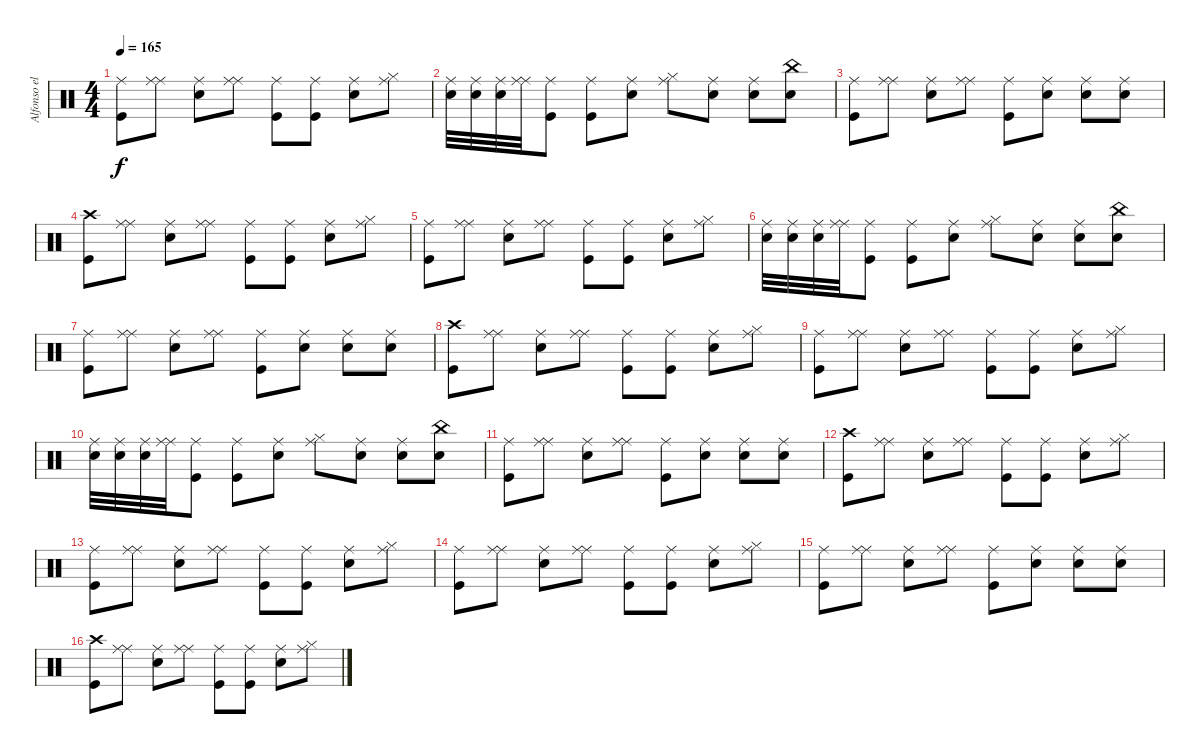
\track ("Alfonso el flaco Andre" "Alfonso el") {instrument percussion}
\staff {score}
\articulation defaults
\ts (4 4)
\tempo 165
\clef neutral
\ks c
("Ride (middle)" "Kick (hit)").8{dy f} ("Ride (middle)" "Ride (middle)").8 ("Ride (middle)" "Snare (hit) 2").8 ("Ride (middle)" "Ride (middle)").8 ("Ride (middle)" "Kick (hit)").8 ("Ride (middle)" "Kick (hit)").8 ("Ride (middle)" "Snare (hit) 2").8 ("Ride (middle)" "Hi-Hat (closed)").8 |
("Ride (middle)" "Snare (hit) 2").32 ("Ride (middle)" "Snare (hit) 2").32 ("Ride (middle)" "Snare (hit) 2").32 ("Ride (middle)" "Ride (middle)").32 ("Ride (middle)" "Kick (hit)").8 ("Ride (middle)" "Kick (hit)").8 ("Ride (middle)" "Snare (hit) 2").8 ("Ride (middle)" "Hi-Hat (closed)").8 ("Ride (middle)" "Snare (hit) 2").8 ("Ride (middle)" "Snare (hit) 2").8 ("China (hit)" "Snare (hit) 2").8 |
("Ride (middle)" "Kick (hit)").8 ("Ride (middle)" "Ride (middle)").8 ("Ride (middle)" "Snare (hit) 2").8 ("Ride (middle)" "Ride (middle)").8 ("Ride (middle)" "Kick (hit)").8 ("Ride (middle)" "Snare (hit) 2").8 ("Ride (middle)" "Snare (hit) 2").8 ("Ride (middle)" "Snare (hit) 2").8 |
("Crash high (hit)" "Kick (hit)").8 ("Ride (middle)" "Ride (middle)").8 ("Ride (middle)" "Snare (hit) 2").8 ("Ride (middle)" "Ride (middle)").8 ("Ride (middle)" "Kick (hit)").8 ("Ride (middle)" "Kick (hit)").8 ("Ride (middle)" "Snare (hit) 2").8 ("Ride (middle)" "Hi-Hat (closed)").8 |
("Ride (middle)" "Kick (hit)").8 ("Ride (middle)" "Ride (middle)").8 ("Ride (middle)" "Snare (hit) 2").8 ("Ride (middle)" "Ride (middle)").8 ("Ride (middle)" "Kick (hit)").8 ("Ride (middle)" "Kick (hit)").8 ("Ride (middle)" "Snare (hit) 2").8 ("Ride (middle)" "Hi-Hat (closed)").8 |
("Ride (middle)" "Snare (hit) 2").32 ("Ride (middle)" "Snare (hit) 2").32 ("Ride (middle)" "Snare (hit) 2").32 ("Ride (middle)" "Ride (middle)").32 ("Ride (middle)" "Kick (hit)").8 ("Ride (middle)" "Kick (hit)").8 ("Ride (middle)" "Snare (hit) 2").8 ("Ride (middle)" "Hi-Hat (closed)").8 ("Ride (middle)" "Snare (hit) 2").8 ("Ride (middle)" "Snare (hit) 2").8 ("China (hit)" "Snare (hit) 2").8 |
("Ride (middle)" "Kick (hit)").8 ("Ride (middle)" "Ride (middle)").8 ("Ride (middle)" "Snare (hit) 2").8 ("Ride (middle)" "Ride (middle)").8 ("Ride (middle)" "Kick (hit)").8 ("Ride (middle)" "Snare (hit) 2").8 ("Ride (middle)" "Snare (hit) 2").8 ("Ride (middle)" "Snare (hit) 2").8 |
("Crash high (hit)" "Kick (hit)").8 ("Ride (middle)" "Ride (middle)").8 ("Ride (middle)" "Snare (hit) 2").8 ("Ride (middle)" "Ride (middle)").8 ("Ride (middle)" "Kick (hit)").8 ("Ride (middle)" "Kick (hit)").8 ("Ride (middle)" "Snare (hit) 2").8 ("Ride (middle)" "Hi-Hat (closed)").8 |
("Ride (middle)" "Kick (hit)").8 ("Ride (middle)" "Ride (middle)").8 ("Ride (middle)" "Snare (hit) 2").8 ("Ride (middle)" "Ride (middle)").8 ("Ride (middle)" "Kick (hit)").8 ("Ride (middle)" "Kick (hit)").8 ("Ride (middle)" "Snare (hit) 2").8 ("Ride (middle)" "Hi-Hat (closed)").8 |
("Ride (middle)" "Snare (hit) 2").32 ("Ride (middle)" "Snare (hit) 2").32 ("Ride (middle)" "Snare (hit) 2").32 ("Ride (middle)" "Ride (middle)").32 ("Ride (middle)" "Kick (hit)").8 ("Ride (middle)" "Kick (hit)").8 ("Ride (middle)" "Snare (hit) 2").8 ("Ride (middle)" "Hi-Hat (closed)").8 ("Ride (middle)" "Snare (hit) 2").8 ("Ride (middle)" "Snare (hit) 2").8 ("China (hit)" "Snare (hit) 2").8 |
("Ride (middle)" "Kick (hit)").8 ("Ride (middle)" "Ride (middle)").8 ("Ride (middle)" "Snare (hit) 2").8 ("Ride (middle)" "Ride (middle)").8 ("Ride (middle)" "Kick (hit)").8 ("Ride (middle)" "Snare (hit) 2").8 ("Ride (middle)" "Snare (hit) 2").8 ("Ride (middle)" "Snare (hit) 2").8 |
("Crash high (hit)" "Kick (hit)").8 ("Ride (middle)" "Ride (middle)").8 ("Ride (middle)" "Snare (hit) 2").8 ("Ride (middle)" "Ride (middle)").8 ("Ride (middle)" "Kick (hit)").8 ("Ride (middle)" "Kick (hit)").8 ("Ride (middle)" "Snare (hit) 2").8 ("Ride (middle)" "Hi-Hat (closed)").8 |
("Ride (middle)" "Kick (hit)").8 ("Ride (middle)" "Ride (middle)").8 ("Ride (middle)" "Snare (hit) 2").8 ("Ride (middle)" "Ride (middle)").8 ("Ride (middle)" "Kick (hit)").8 ("Ride (middle)" "Kick (hit)").8 ("Ride (middle)" "Snare (hit) 2").8 ("Ride (middle)" "Hi-Hat (closed)").8 |
("Ride (middle)" "Kick (hit)").8 ("Ride (middle)" "Ride (middle)").8 ("Ride (middle)" "Snare (hit) 2").8 ("Ride (middle)" "Ride (middle)").8 ("Ride (middle)" "Kick (hit)").8 ("Ride (middle)" "Kick (hit)").8 ("Ride (middle)" "Snare (hit) 2").8 ("Ride (middle)" "Hi-Hat (closed)").8 |
("Ride (middle)" "Kick (hit)").8 ("Ride (middle)" "Ride (middle)").8 ("Ride (middle)" "Snare (hit) 2").8 ("Ride (middle)" "Ride (middle)").8 ("Ride (middle)" "Kick (hit)").8 ("Ride (middle)" "Snare (hit) 2").8 ("Ride (middle)" "Snare (hit) 2").8 ("Ride (middle)" "Snare (hit) 2").8 |
("Crash high (hit)" "Kick (hit)").8 ("Ride (middle)" "Ride (middle)").8 ("Ride (middle)" "Snare (hit) 2").8 ("Ride (middle)" "Ride (middle)").8 ("Ride (middle)" "Kick (hit)").8 ("Ride (middle)" "Kick (hit)").8 ("Ride (middle)" "Snare (hit) 2").8 ("Ride (middle)" "Hi-Hat (closed)").8
